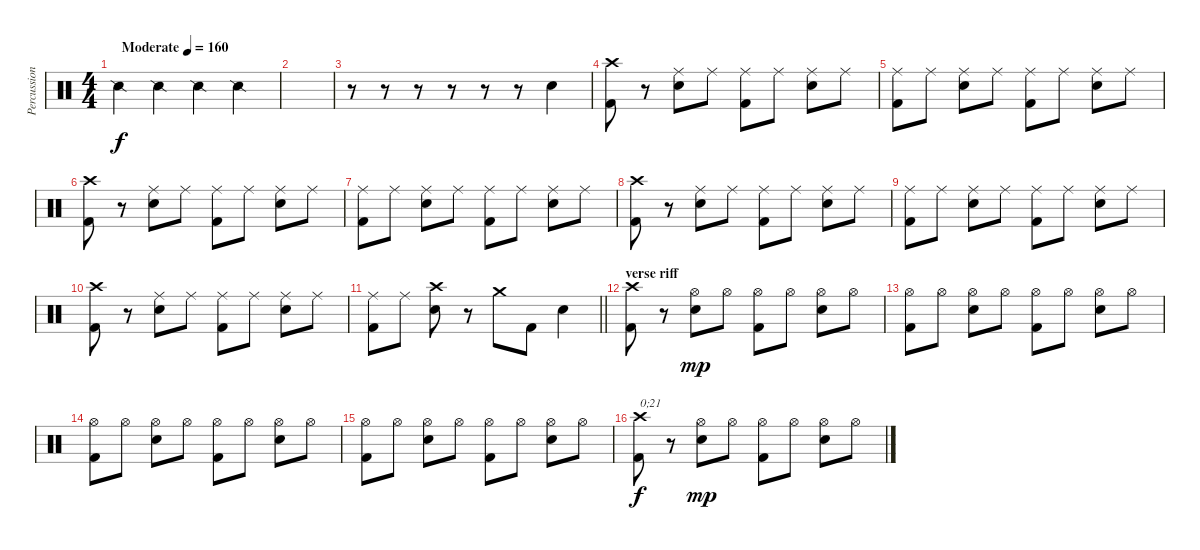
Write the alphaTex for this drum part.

\track ("Percussion - live 1983" "Percussion") {mute instrument percussion}
\staff {score}
\articulation defaults
\ts (4 4)
\tempo (160 "Moderate")
\clef neutral
\ks c "Snare (side stick) 2".4{dy f} "Snare (side stick) 2".4 "Snare (side stick) 2".4 "Snare (side stick) 2".4
|
|
r.8 r.8 r.8 r.8 r.8 r.8 "Snare (hit) 2".4 |
("Crash high (hit)" "Kick (hit) 2").8 r.8 ("Ride (middle)" "Snare (hit) 2").8 "Ride (middle)".8 ("Ride (middle)" "Kick (hit) 2").8 "Ride (middle)".8 ("Ride (middle)" "Snare (hit) 2").8 "Ride (middle)".8 |
("Ride (middle)" "Kick (hit) 2").8 "Ride (middle)".8 ("Ride (middle)" "Snare (hit) 2").8 "Ride (middle)".8 ("Ride (middle)" "Kick (hit) 2").8 "Ride (middle)".8 ("Ride (middle)" "Snare (hit) 2").8 "Ride (middle)".8 |
("Crash high (hit)" "Kick (hit) 2").8 r.8 ("Ride (middle)" "Snare (hit) 2").8 "Ride (middle)".8 ("Ride (middle)" "Kick (hit) 2").8 "Ride (middle)".8 ("Ride (middle)" "Snare (hit) 2").8 "Ride (middle)".8 |
("Ride (middle)" "Kick (hit) 2").8 "Ride (middle)".8 ("Ride (middle)" "Snare (hit) 2").8 "Ride (middle)".8 ("Ride (middle)" "Kick (hit) 2").8 "Ride (middle)".8 ("Ride (middle)" "Snare (hit) 2").8 "Ride (middle)".8 |
("Crash high (hit)" "Kick (hit) 2").8 r.8 ("Ride (middle)" "Snare (hit) 2").8 "Ride (middle)".8 ("Ride (middle)" "Kick (hit) 2").8 "Ride (middle)".8 ("Ride (middle)" "Snare (hit) 2").8 "Ride (middle)".8 |
("Ride (middle)" "Kick (hit) 2").8 "Ride (middle)".8 ("Ride (middle)" "Snare (hit) 2").8 "Ride (middle)".8 ("Ride (middle)" "Kick (hit) 2").8 "Ride (middle)".8 ("Ride (middle)" "Snare (hit) 2").8 "Ride (middle)".8 |
("Crash high (hit)" "Kick (hit) 2").8 r.8 ("Ride (middle)" "Snare (hit) 2").8 "Ride (middle)".8 ("Ride (middle)" "Kick (hit) 2").8 "Ride (middle)".8 ("Ride (middle)" "Snare (hit) 2").8 "Ride (middle)".8 |
\barLineRight lightlight
("Ride (middle)" "Kick (hit) 2").8 "Ride (middle)".8 ("Crash high (hit)" "Snare (hit) 2").8 r.8 "Crash medium (hit)".8 "Kick (hit) 2".8 "Snare (hit) 2".4 |
\section ("" "verse riff")
("Crash high (hit)" "Kick (hit) 2").8 r.8 ("Hi-Hat (open)" "Snare (hit) 2").8{dy mp} "Hi-Hat (open)".8 ("Hi-Hat (open)" "Kick (hit) 2").8 "Hi-Hat (open)".8 ("Hi-Hat (open)" "Snare (hit) 2").8 "Hi-Hat (open)".8 |
("Hi-Hat (open)" "Kick (hit) 2").8 "Hi-Hat (open)".8 ("Hi-Hat (open)" "Snare (hit) 2").8 "Hi-Hat (open)".8 ("Hi-Hat (open)" "Kick (hit) 2").8 "Hi-Hat (open)".8 ("Hi-Hat (open)" "Snare (hit) 2").8 "Hi-Hat (open)".8 |
("Hi-Hat (open)" "Kick (hit) 2").8 "Hi-Hat (open)".8 ("Hi-Hat (open)" "Snare (hit) 2").8 "Hi-Hat (open)".8 ("Hi-Hat (open)" "Kick (hit) 2").8 "Hi-Hat (open)".8 ("Hi-Hat (open)" "Snare (hit) 2").8 "Hi-Hat (open)".8 |
("Hi-Hat (open)" "Kick (hit) 2").8 "Hi-Hat (open)".8 ("Hi-Hat (open)" "Snare (hit) 2").8 "Hi-Hat (open)".8 ("Hi-Hat (open)" "Kick (hit) 2").8 "Hi-Hat (open)".8 ("Hi-Hat (open)" "Snare (hit) 2").8 "Hi-Hat (open)".8 |
("Crash high (hit)" "Kick (hit) 2").8{txt "0;21" dy f} r.8 ("Hi-Hat (open)" "Snare (hit) 2").8{dy mp} "Hi-Hat (open)".8 ("Hi-Hat (open)" "Kick (hit) 2").8 "Hi-Hat (open)".8 ("Hi-Hat (open)" "Snare (hit) 2").8 "Hi-Hat (open)".8
